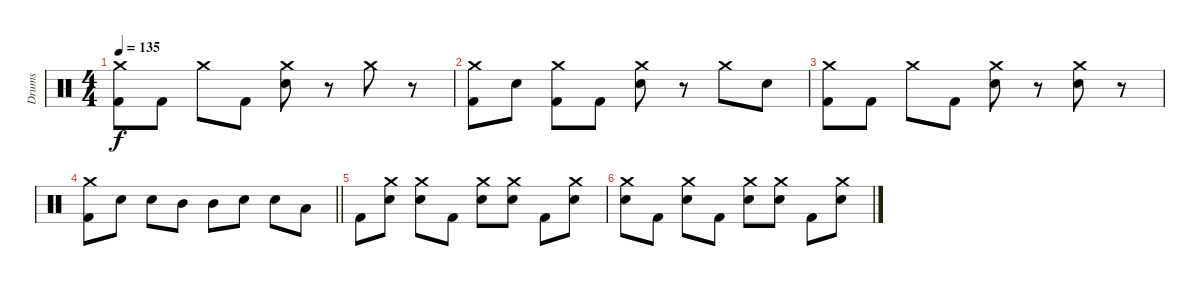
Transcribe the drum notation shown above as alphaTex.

\track ("Drums" "Drums") {instrument percussion}
\staff {score}
\articulation defaults
\ts (4 4)
\tempo 135
\clef neutral
\ks c
("Crash medium (hit)" "Kick (hit) 2").8{dy f} "Kick (hit) 2".8 "Crash medium (hit)".8 "Kick (hit) 2".8 ("Crash medium (hit)" "Electric Snare (hit)").8 r.8 "Crash medium (hit)".8 r.8 |
("Kick (hit) 2" "Crash medium (hit)").8 "Electric Snare (hit)".8 ("Crash medium (hit)" "Kick (hit) 2").8 "Kick (hit) 2".8 ("Electric Snare (hit)" "Crash medium (hit)").8 r.8 "Crash medium (hit)".8 "Electric Snare (hit)".8 |
("Crash medium (hit)" "Kick (hit) 2").8 "Kick (hit) 2".8 "Crash medium (hit)".8 "Kick (hit) 2".8 ("Crash medium (hit)" "Electric Snare (hit)").8 r.8 ("Crash medium (hit)" "Electric Snare (hit)").8 r.8 |
\barLineRight lightlight
("Kick (hit) 2" "Crash medium (hit)").8 "Electric Snare (hit)".8 "Electric Snare (hit)".8 "Mid Tom (hit)".8 "Mid Tom (hit)".8 "Electric Snare (hit)".8 "Electric Snare (hit)".8 "Low Tom (hit)".8 |
"Kick (hit) 2".8 ("Crash medium (hit)" "Electric Snare (hit)").8 ("Crash medium (hit)" "Electric Snare (hit)").8 "Kick (hit) 2".8 ("Crash medium (hit)" "Electric Snare (hit)").8 ("Crash medium (hit)" "Electric Snare (hit)").8 "Kick (hit) 2".8 ("Crash medium (hit)" "Electric Snare (hit)").8 |
("Crash medium (hit)" "Electric Snare (hit)").8 "Kick (hit) 2".8 ("Electric Snare (hit)" "Crash medium (hit)").8 "Kick (hit) 2".8 ("Electric Snare (hit)" "Crash medium (hit)").8 ("Electric Snare (hit)" "Crash medium (hit)").8 "Kick (hit) 2".8 ("Electric Snare (hit)" "Crash medium (hit)").8
